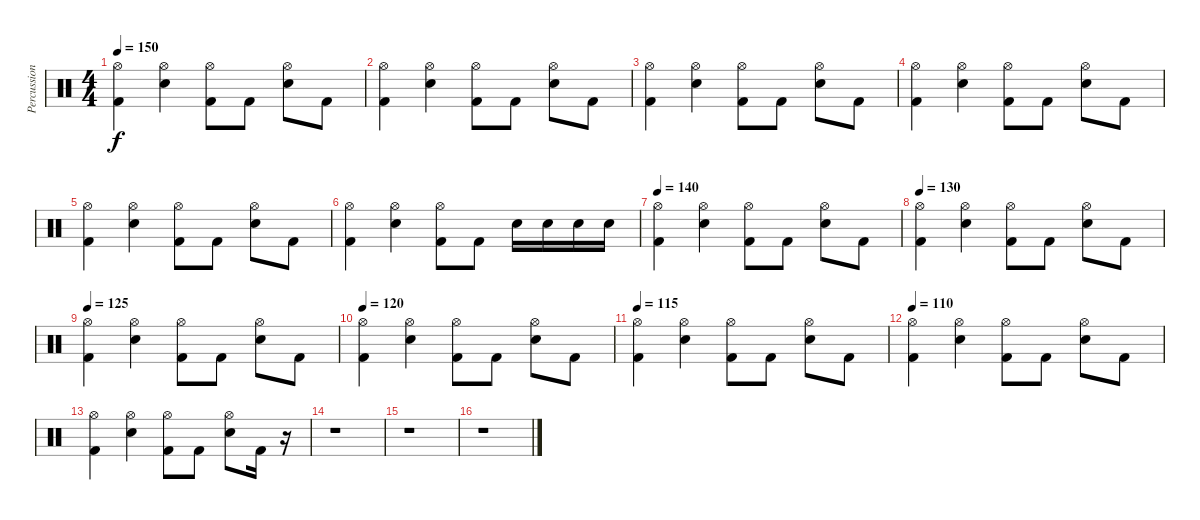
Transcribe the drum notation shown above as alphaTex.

\track ("Percussions" "Percussion") {instrument percussion}
\staff {score}
\articulation defaults
\ts (4 4)
\tempo 150
\clef neutral
\ks c
("Kick (hit) 2" "Hi-Hat (open)").4{dy f} ("Snare (hit) 2" "Hi-Hat (open)").4 ("Kick (hit) 2" "Hi-Hat (open)").8 "Kick (hit) 2".8 ("Snare (hit) 2" "Hi-Hat (open)").8 "Kick (hit) 2".8 |
("Kick (hit) 2" "Hi-Hat (open)").4 ("Snare (hit) 2" "Hi-Hat (open)").4 ("Kick (hit) 2" "Hi-Hat (open)").8 "Kick (hit) 2".8 ("Snare (hit) 2" "Hi-Hat (open)").8 "Kick (hit) 2".8 |
("Kick (hit) 2" "Hi-Hat (open)").4 ("Snare (hit) 2" "Hi-Hat (open)").4 ("Kick (hit) 2" "Hi-Hat (open)").8 "Kick (hit) 2".8 ("Snare (hit) 2" "Hi-Hat (open)").8 "Kick (hit) 2".8 |
("Kick (hit) 2" "Hi-Hat (open)").4 ("Snare (hit) 2" "Hi-Hat (open)").4 ("Kick (hit) 2" "Hi-Hat (open)").8 "Kick (hit) 2".8 ("Snare (hit) 2" "Hi-Hat (open)").8 "Kick (hit) 2".8 |
("Kick (hit) 2" "Hi-Hat (open)").4 ("Snare (hit) 2" "Hi-Hat (open)").4 ("Kick (hit) 2" "Hi-Hat (open)").8 "Kick (hit) 2".8 ("Snare (hit) 2" "Hi-Hat (open)").8 "Kick (hit) 2".8 |
("Kick (hit) 2" "Hi-Hat (open)").4 ("Snare (hit) 2" "Hi-Hat (open)").4 ("Kick (hit) 2" "Hi-Hat (open)").8 "Kick (hit) 2".8 "Snare (hit) 2".16 "Snare (hit) 2".16 "Snare (hit) 2".16 "Snare (hit) 2".16 |
\tempo 140
("Kick (hit) 2" "Hi-Hat (open)").4 ("Snare (hit) 2" "Hi-Hat (open)").4 ("Kick (hit) 2" "Hi-Hat (open)").8 "Kick (hit) 2".8 ("Snare (hit) 2" "Hi-Hat (open)").8 "Kick (hit) 2".8 |
\tempo 130
("Kick (hit) 2" "Hi-Hat (open)").4 ("Snare (hit) 2" "Hi-Hat (open)").4 ("Kick (hit) 2" "Hi-Hat (open)").8 "Kick (hit) 2".8 ("Snare (hit) 2" "Hi-Hat (open)").8 "Kick (hit) 2".8 |
\tempo 125
("Kick (hit) 2" "Hi-Hat (open)").4 ("Snare (hit) 2" "Hi-Hat (open)").4 ("Kick (hit) 2" "Hi-Hat (open)").8 "Kick (hit) 2".8 ("Snare (hit) 2" "Hi-Hat (open)").8 "Kick (hit) 2".8 |
\tempo 120
("Kick (hit) 2" "Hi-Hat (open)").4 ("Snare (hit) 2" "Hi-Hat (open)").4 ("Kick (hit) 2" "Hi-Hat (open)").8 "Kick (hit) 2".8 ("Snare (hit) 2" "Hi-Hat (open)").8 "Kick (hit) 2".8 |
\tempo 115
("Kick (hit) 2" "Hi-Hat (open)").4 ("Snare (hit) 2" "Hi-Hat (open)").4 ("Kick (hit) 2" "Hi-Hat (open)").8 "Kick (hit) 2".8 ("Snare (hit) 2" "Hi-Hat (open)").8 "Kick (hit) 2".8 |
\tempo 110
("Kick (hit) 2" "Hi-Hat (open)").4 ("Snare (hit) 2" "Hi-Hat (open)").4 ("Kick (hit) 2" "Hi-Hat (open)").8 "Kick (hit) 2".8 ("Snare (hit) 2" "Hi-Hat (open)").8 "Kick (hit) 2".8 |
("Kick (hit) 2" "Hi-Hat (open)").4 ("Snare (hit) 2" "Hi-Hat (open)").4 ("Kick (hit) 2" "Hi-Hat (open)").8 "Kick (hit) 2".8 ("Snare (hit) 2" "Hi-Hat (open)").8 "Kick (hit) 2".16 r.16 |
r.1 |
r.1 |
r.1
